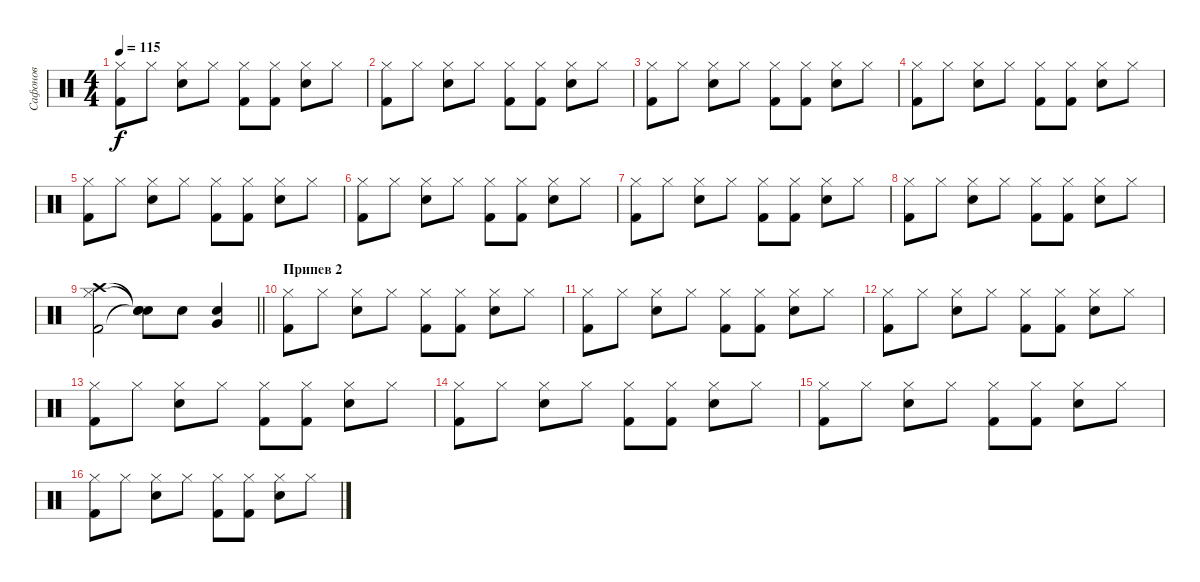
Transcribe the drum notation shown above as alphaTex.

\track ("Сафонов" "Сафонов") {instrument percussion}
\staff {score}
\articulation defaults
\ts (4 4)
\tempo 115
\clef neutral
\ks c
("Hi-Hat (closed)" "Kick (hit) 2").8{dy f} "Hi-Hat (closed)".8 ("Hi-Hat (closed)" "Electric Snare (hit)").8 "Hi-Hat (closed)".8 ("Hi-Hat (closed)" "Kick (hit) 2").8 ("Hi-Hat (closed)" "Kick (hit) 2").8 ("Hi-Hat (closed)" "Electric Snare (hit)").8 "Hi-Hat (closed)".8 |
("Hi-Hat (closed)" "Kick (hit) 2").8 "Hi-Hat (closed)".8 ("Hi-Hat (closed)" "Electric Snare (hit)").8 "Hi-Hat (closed)".8 ("Hi-Hat (closed)" "Kick (hit) 2").8 ("Hi-Hat (closed)" "Kick (hit) 2").8 ("Hi-Hat (closed)" "Electric Snare (hit)").8 "Hi-Hat (closed)".8 |
("Hi-Hat (closed)" "Kick (hit) 2").8 "Hi-Hat (closed)".8 ("Hi-Hat (closed)" "Electric Snare (hit)").8 "Hi-Hat (closed)".8 ("Hi-Hat (closed)" "Kick (hit) 2").8 ("Hi-Hat (closed)" "Kick (hit) 2").8 ("Hi-Hat (closed)" "Electric Snare (hit)").8 "Hi-Hat (closed)".8 |
("Hi-Hat (closed)" "Kick (hit) 2").8 "Hi-Hat (closed)".8 ("Hi-Hat (closed)" "Electric Snare (hit)").8 "Hi-Hat (closed)".8 ("Hi-Hat (closed)" "Kick (hit) 2").8 ("Hi-Hat (closed)" "Kick (hit) 2").8 ("Hi-Hat (closed)" "Electric Snare (hit)").8 "Hi-Hat (closed)".8 |
("Hi-Hat (closed)" "Kick (hit) 2").8 "Hi-Hat (closed)".8 ("Hi-Hat (closed)" "Electric Snare (hit)").8 "Hi-Hat (closed)".8 ("Hi-Hat (closed)" "Kick (hit) 2").8 ("Hi-Hat (closed)" "Kick (hit) 2").8 ("Hi-Hat (closed)" "Electric Snare (hit)").8 "Hi-Hat (closed)".8 |
("Hi-Hat (closed)" "Kick (hit) 2").8 "Hi-Hat (closed)".8 ("Hi-Hat (closed)" "Electric Snare (hit)").8 "Hi-Hat (closed)".8 ("Hi-Hat (closed)" "Kick (hit) 2").8 ("Hi-Hat (closed)" "Kick (hit) 2").8 ("Hi-Hat (closed)" "Electric Snare (hit)").8 "Hi-Hat (closed)".8 |
("Hi-Hat (closed)" "Kick (hit) 2").8 "Hi-Hat (closed)".8 ("Hi-Hat (closed)" "Electric Snare (hit)").8 "Hi-Hat (closed)".8 ("Hi-Hat (closed)" "Kick (hit) 2").8 ("Hi-Hat (closed)" "Kick (hit) 2").8 ("Hi-Hat (closed)" "Electric Snare (hit)").8 "Hi-Hat (closed)".8 |
("Hi-Hat (closed)" "Kick (hit) 2").8 "Hi-Hat (closed)".8 ("Hi-Hat (closed)" "Electric Snare (hit)").8 "Hi-Hat (closed)".8 ("Hi-Hat (closed)" "Kick (hit) 2").8 ("Hi-Hat (closed)" "Kick (hit) 2").8 ("Hi-Hat (closed)" "Electric Snare (hit)").8 "Hi-Hat (closed)".8 |
\barLineRight lightlight
("Crash high (hit)" "Hi-Hat (closed)" "Kick (hit) 2").2 ("Snare (hit)"{t} "Snare (hit)"{t} "Snare (hit)"{t}).8 "Electric Snare (hit)".8 ("Very Low Tom (hit)" "Electric Snare (hit)").4 |
\section ("" "Припев 2")
("Hi-Hat (closed)" "Kick (hit) 2").8 "Hi-Hat (closed)".8 ("Hi-Hat (closed)" "Electric Snare (hit)").8 "Hi-Hat (closed)".8 ("Hi-Hat (closed)" "Kick (hit) 2").8 ("Hi-Hat (closed)" "Kick (hit) 2").8 ("Hi-Hat (closed)" "Electric Snare (hit)").8 "Hi-Hat (closed)".8 |
("Hi-Hat (closed)" "Kick (hit) 2").8 "Hi-Hat (closed)".8 ("Hi-Hat (closed)" "Electric Snare (hit)").8 "Hi-Hat (closed)".8 ("Hi-Hat (closed)" "Kick (hit) 2").8 ("Hi-Hat (closed)" "Kick (hit) 2").8 ("Hi-Hat (closed)" "Electric Snare (hit)").8 "Hi-Hat (closed)".8 |
("Hi-Hat (closed)" "Kick (hit) 2").8 "Hi-Hat (closed)".8 ("Hi-Hat (closed)" "Electric Snare (hit)").8 "Hi-Hat (closed)".8 ("Hi-Hat (closed)" "Kick (hit) 2").8 ("Hi-Hat (closed)" "Kick (hit) 2").8 ("Hi-Hat (closed)" "Electric Snare (hit)").8 "Hi-Hat (closed)".8 |
("Hi-Hat (closed)" "Kick (hit) 2").8 "Hi-Hat (closed)".8 ("Hi-Hat (closed)" "Electric Snare (hit)").8 "Hi-Hat (closed)".8 ("Hi-Hat (closed)" "Kick (hit) 2").8 ("Hi-Hat (closed)" "Kick (hit) 2").8 ("Hi-Hat (closed)" "Electric Snare (hit)").8 "Hi-Hat (closed)".8 |
("Hi-Hat (closed)" "Kick (hit) 2").8 "Hi-Hat (closed)".8 ("Hi-Hat (closed)" "Electric Snare (hit)").8 "Hi-Hat (closed)".8 ("Hi-Hat (closed)" "Kick (hit) 2").8 ("Hi-Hat (closed)" "Kick (hit) 2").8 ("Hi-Hat (closed)" "Electric Snare (hit)").8 "Hi-Hat (closed)".8 |
("Hi-Hat (closed)" "Kick (hit) 2").8 "Hi-Hat (closed)".8 ("Hi-Hat (closed)" "Electric Snare (hit)").8 "Hi-Hat (closed)".8 ("Hi-Hat (closed)" "Kick (hit) 2").8 ("Hi-Hat (closed)" "Kick (hit) 2").8 ("Hi-Hat (closed)" "Electric Snare (hit)").8 "Hi-Hat (closed)".8 |
("Hi-Hat (closed)" "Kick (hit) 2").8 "Hi-Hat (closed)".8 ("Hi-Hat (closed)" "Electric Snare (hit)").8 "Hi-Hat (closed)".8 ("Hi-Hat (closed)" "Kick (hit) 2").8 ("Hi-Hat (closed)" "Kick (hit) 2").8 ("Hi-Hat (closed)" "Electric Snare (hit)").8 "Hi-Hat (closed)".8
